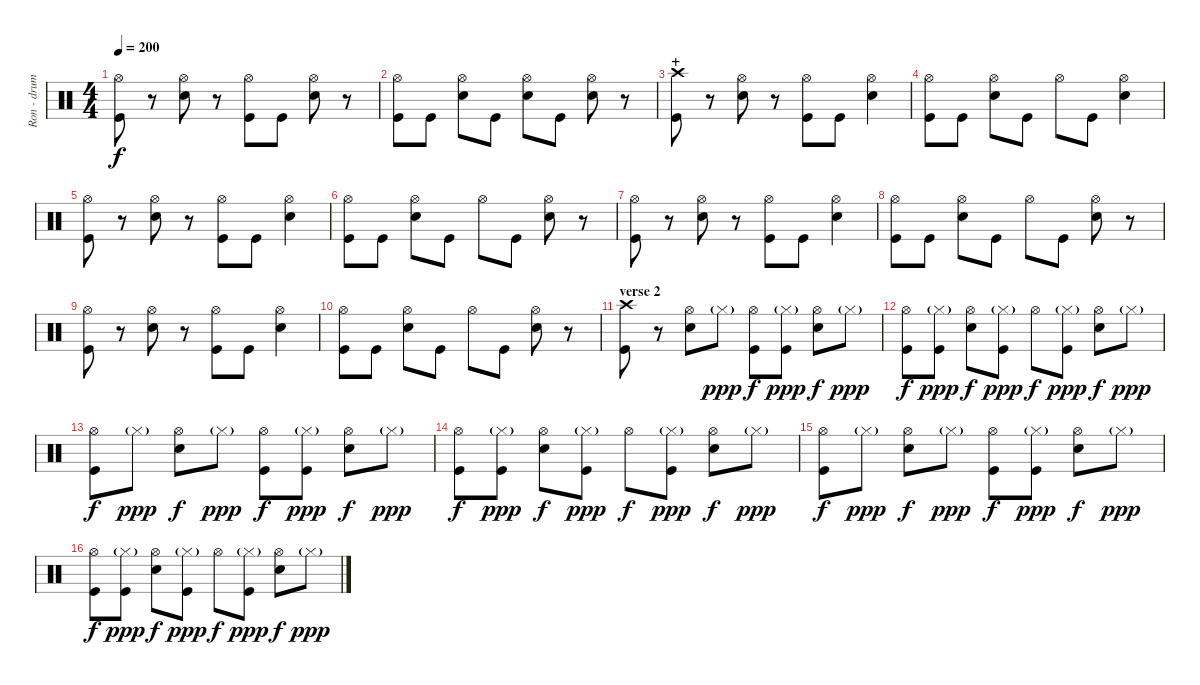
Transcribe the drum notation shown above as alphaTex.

\track ("Ron - drums" "Ron - drum") {instrument percussion}
\staff {score}
\articulation defaults
\ts (4 4)
\tempo 200
\clef neutral
\ks c
("Hi-Hat (open)" "Kick (hit)").8{dy f} r.8 ("Hi-Hat (open)" "Snare (hit) 2").8 r.8 ("Hi-Hat (open)" "Kick (hit)").8 "Kick (hit)".8 ("Hi-Hat (open)" "Snare (hit) 2").8 r.8 |
("Hi-Hat (open)" "Kick (hit)").8 "Kick (hit)".8 ("Hi-Hat (open)" "Snare (hit) 2").8 "Kick (hit)".8 ("Hi-Hat (open)" "Snare (hit) 2").8 "Kick (hit)".8 ("Hi-Hat (open)" "Snare (hit) 2").8 r.8 |
\section ("" "+")
("Crash high (hit)" "Kick (hit)").8 r.8 ("Hi-Hat (open)" "Snare (hit) 2").8 r.8 ("Hi-Hat (open)" "Kick (hit)").8 "Kick (hit)".8 ("Hi-Hat (open)" "Snare (hit) 2").4 |
("Hi-Hat (open)" "Kick (hit)").8 "Kick (hit)".8 ("Hi-Hat (open)" "Snare (hit) 2").8 "Kick (hit)".8 "Hi-Hat (open)".8 "Kick (hit)".8 ("Hi-Hat (open)" "Snare (hit) 2").4 |
("Hi-Hat (open)" "Kick (hit)").8 r.8 ("Hi-Hat (open)" "Snare (hit) 2").8 r.8 ("Hi-Hat (open)" "Kick (hit)").8 "Kick (hit)".8 ("Hi-Hat (open)" "Snare (hit) 2").4 |
("Hi-Hat (open)" "Kick (hit)").8 "Kick (hit)".8 ("Hi-Hat (open)" "Snare (hit) 2").8 "Kick (hit)".8 "Hi-Hat (open)".8 "Kick (hit)".8 ("Hi-Hat (open)" "Snare (hit) 2").8 r.8 |
("Hi-Hat (open)" "Kick (hit)").8 r.8 ("Hi-Hat (open)" "Snare (hit) 2").8 r.8 ("Hi-Hat (open)" "Kick (hit)").8 "Kick (hit)".8 ("Hi-Hat (open)" "Snare (hit) 2").4 |
("Hi-Hat (open)" "Kick (hit)").8 "Kick (hit)".8 ("Hi-Hat (open)" "Snare (hit) 2").8 "Kick (hit)".8 "Hi-Hat (open)".8 "Kick (hit)".8 ("Hi-Hat (open)" "Snare (hit) 2").8 r.8 |
("Hi-Hat (open)" "Kick (hit)").8 r.8 ("Hi-Hat (open)" "Snare (hit) 2").8 r.8 ("Hi-Hat (open)" "Kick (hit)").8 "Kick (hit)".8 ("Hi-Hat (open)" "Snare (hit) 2").4 |
("Hi-Hat (open)" "Kick (hit)").8 "Kick (hit)".8 ("Hi-Hat (open)" "Snare (hit) 2").8 "Kick (hit)".8 "Hi-Hat (open)".8 "Kick (hit)".8 ("Hi-Hat (open)" "Snare (hit) 2").8 r.8 |
\section ("" "verse 2")
("Crash high (hit)" "Kick (hit)").8 r.8 ("Hi-Hat (open)" "Snare (hit) 2").8 "Hi-Hat (closed)"{g}.8{dy ppp} ("Hi-Hat (open)" "Kick (hit)").8{dy f} ("Hi-Hat (closed)"{g} "Kick (hit)").8{dy ppp} ("Hi-Hat (open)" "Snare (hit) 2").8{dy f} "Hi-Hat (closed)"{g}.8{dy ppp} |
("Hi-Hat (open)" "Kick (hit)").8{dy f} ("Hi-Hat (closed)"{g} "Kick (hit)").8{dy ppp} ("Hi-Hat (open)" "Snare (hit) 2").8{dy f} ("Hi-Hat (closed)"{g} "Kick (hit)").8{dy ppp} "Hi-Hat (open)".8{dy f} ("Hi-Hat (closed)"{g} "Kick (hit)").8{dy ppp} ("Hi-Hat (open)" "Snare (hit) 2").8{dy f} "Hi-Hat (closed)"{g}.8{dy ppp} |
("Hi-Hat (open)" "Kick (hit)").8{dy f} "Hi-Hat (closed)"{g}.8{dy ppp} ("Hi-Hat (open)" "Snare (hit) 2").8{dy f} "Hi-Hat (closed)"{g}.8{dy ppp} ("Hi-Hat (open)" "Kick (hit)").8{dy f} ("Hi-Hat (closed)"{g} "Kick (hit)").8{dy ppp} ("Hi-Hat (open)" "Snare (hit) 2").8{dy f} "Hi-Hat (closed)"{g}.8{dy ppp} |
("Hi-Hat (open)" "Kick (hit)").8{dy f} ("Hi-Hat (closed)"{g} "Kick (hit)").8{dy ppp} ("Hi-Hat (open)" "Snare (hit) 2").8{dy f} ("Hi-Hat (closed)"{g} "Kick (hit)").8{dy ppp} "Hi-Hat (open)".8{dy f} ("Hi-Hat (closed)"{g} "Kick (hit)").8{dy ppp} ("Hi-Hat (open)" "Snare (hit) 2").8{dy f} "Hi-Hat (closed)"{g}.8{dy ppp} |
("Hi-Hat (open)" "Kick (hit)").8{dy f} "Hi-Hat (closed)"{g}.8{dy ppp} ("Hi-Hat (open)" "Snare (hit) 2").8{dy f} "Hi-Hat (closed)"{g}.8{dy ppp} ("Hi-Hat (open)" "Kick (hit)").8{dy f} ("Hi-Hat (closed)"{g} "Kick (hit)").8{dy ppp} ("Hi-Hat (open)" "Snare (hit) 2").8{dy f} "Hi-Hat (closed)"{g}.8{dy ppp} |
("Hi-Hat (open)" "Kick (hit)").8{dy f} ("Hi-Hat (closed)"{g} "Kick (hit)").8{dy ppp} ("Hi-Hat (open)" "Snare (hit) 2").8{dy f} ("Hi-Hat (closed)"{g} "Kick (hit)").8{dy ppp} "Hi-Hat (open)".8{dy f} ("Hi-Hat (closed)"{g} "Kick (hit)").8{dy ppp} ("Hi-Hat (open)" "Snare (hit) 2").8{dy f} "Hi-Hat (closed)"{g}.8{dy ppp}
